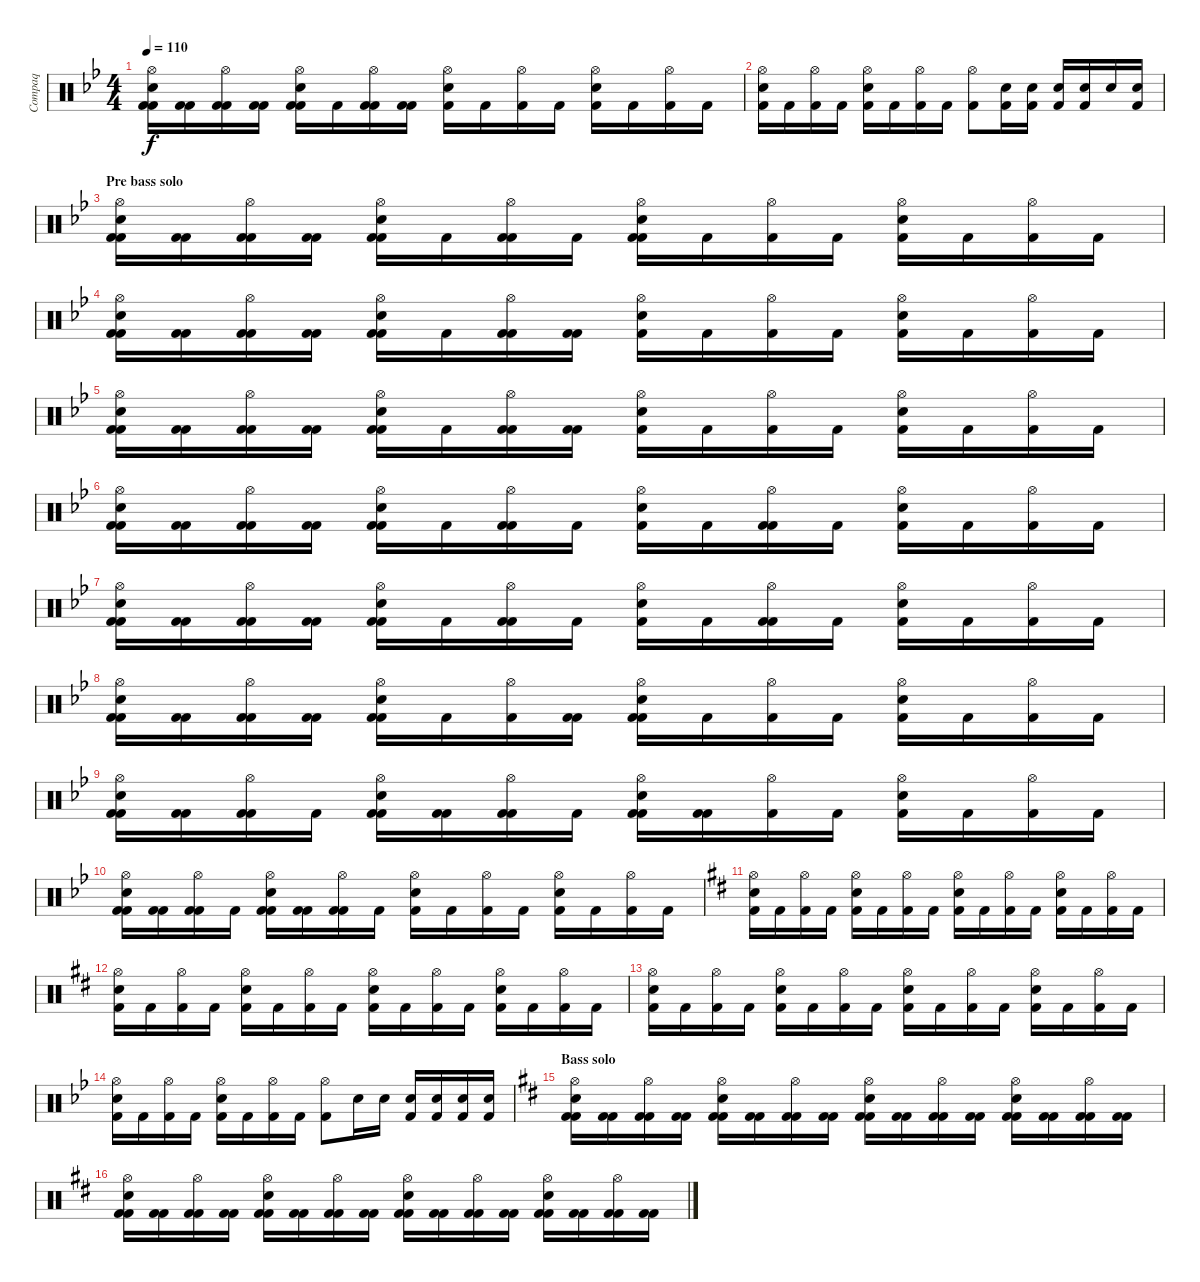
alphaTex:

\track ("Compaq" "Compaq") {instrument percussion}
\staff {score}
\articulation defaults
\ts (4 4)
\tempo 110
\clef neutral
\ks bb
("Electric Snare (hit)" "Kick (hit) 2" "Hi-Hat (open)" "Kick (hit) 2").16{dy f} ("Kick (hit) 2" "Kick (hit) 2").16 ("Kick (hit) 2" "Hi-Hat (open)" "Kick (hit) 2").16 ("Kick (hit) 2" "Kick (hit) 2").16 ("Electric Snare (hit)" "Kick (hit) 2" "Hi-Hat (open)" "Kick (hit) 2").16 "Kick (hit) 2".16 ("Kick (hit) 2" "Hi-Hat (open)" "Kick (hit) 2").16 ("Kick (hit) 2" "Kick (hit) 2").16 ("Electric Snare (hit)" "Kick (hit) 2" "Hi-Hat (open)").16 "Kick (hit) 2".16 ("Kick (hit) 2" "Hi-Hat (open)").16 "Kick (hit) 2".16 ("Electric Snare (hit)" "Kick (hit) 2" "Hi-Hat (open)").16 "Kick (hit) 2".16 ("Kick (hit) 2" "Hi-Hat (open)").16 "Kick (hit) 2".16 |
("Electric Snare (hit)" "Kick (hit) 2" "Hi-Hat (open)").16 "Kick (hit) 2".16 ("Kick (hit) 2" "Hi-Hat (open)").16 "Kick (hit) 2".16 ("Electric Snare (hit)" "Kick (hit) 2" "Hi-Hat (open)").16 "Kick (hit) 2".16 ("Kick (hit) 2" "Hi-Hat (open)").16 "Kick (hit) 2".16 ("Hi-Hat (open)" "Kick (hit) 2").8 ("Electric Snare (hit)" "Kick (hit) 2").16 ("Electric Snare (hit)" "Kick (hit) 2").16 ("Electric Snare (hit)" "Kick (hit) 2").16 ("Electric Snare (hit)" "Kick (hit) 2").16 "Electric Snare (hit)".16 ("Electric Snare (hit)" "Kick (hit) 2").16 |
\section ("" "Pre bass solo")
("Electric Snare (hit)" "Kick (hit) 2" "Hi-Hat (open)" "Kick (hit) 2").16 ("Kick (hit) 2" "Kick (hit) 2").16 ("Kick (hit) 2" "Hi-Hat (open)" "Kick (hit) 2").16 ("Kick (hit) 2" "Kick (hit) 2").16 ("Electric Snare (hit)" "Kick (hit) 2" "Hi-Hat (open)" "Kick (hit) 2").16 "Kick (hit) 2".16 ("Kick (hit) 2" "Hi-Hat (open)" "Kick (hit) 2").16 "Kick (hit) 2".16 ("Electric Snare (hit)" "Kick (hit) 2" "Hi-Hat (open)" "Kick (hit) 2").16 "Kick (hit) 2".16 ("Kick (hit) 2" "Hi-Hat (open)").16 "Kick (hit) 2".16 ("Electric Snare (hit)" "Kick (hit) 2" "Hi-Hat (open)").16 "Kick (hit) 2".16 ("Kick (hit) 2" "Hi-Hat (open)").16 "Kick (hit) 2".16 |
("Electric Snare (hit)" "Kick (hit) 2" "Hi-Hat (open)" "Kick (hit) 2").16 ("Kick (hit) 2" "Kick (hit) 2").16 ("Kick (hit) 2" "Hi-Hat (open)" "Kick (hit) 2").16 ("Kick (hit) 2" "Kick (hit) 2").16 ("Electric Snare (hit)" "Kick (hit) 2" "Hi-Hat (open)" "Kick (hit) 2").16 "Kick (hit) 2".16 ("Kick (hit) 2" "Hi-Hat (open)" "Kick (hit) 2").16 ("Kick (hit) 2" "Kick (hit) 2").16 ("Electric Snare (hit)" "Kick (hit) 2" "Hi-Hat (open)").16 "Kick (hit) 2".16 ("Kick (hit) 2" "Hi-Hat (open)").16 "Kick (hit) 2".16 ("Electric Snare (hit)" "Kick (hit) 2" "Hi-Hat (open)").16 "Kick (hit) 2".16 ("Kick (hit) 2" "Hi-Hat (open)").16 "Kick (hit) 2".16 |
("Electric Snare (hit)" "Kick (hit) 2" "Hi-Hat (open)" "Kick (hit) 2").16 ("Kick (hit) 2" "Kick (hit) 2").16 ("Kick (hit) 2" "Hi-Hat (open)" "Kick (hit) 2").16 ("Kick (hit) 2" "Kick (hit) 2").16 ("Electric Snare (hit)" "Kick (hit) 2" "Hi-Hat (open)" "Kick (hit) 2").16 "Kick (hit) 2".16 ("Kick (hit) 2" "Hi-Hat (open)" "Kick (hit) 2").16 ("Kick (hit) 2" "Kick (hit) 2").16 ("Electric Snare (hit)" "Kick (hit) 2" "Hi-Hat (open)").16 "Kick (hit) 2".16 ("Kick (hit) 2" "Hi-Hat (open)").16 "Kick (hit) 2".16 ("Electric Snare (hit)" "Kick (hit) 2" "Hi-Hat (open)").16 "Kick (hit) 2".16 ("Kick (hit) 2" "Hi-Hat (open)").16 "Kick (hit) 2".16 |
("Electric Snare (hit)" "Kick (hit) 2" "Hi-Hat (open)" "Kick (hit) 2").16 ("Kick (hit) 2" "Kick (hit) 2").16 ("Kick (hit) 2" "Hi-Hat (open)" "Kick (hit) 2").16 ("Kick (hit) 2" "Kick (hit) 2").16 ("Electric Snare (hit)" "Kick (hit) 2" "Hi-Hat (open)" "Kick (hit) 2").16 "Kick (hit) 2".16 ("Kick (hit) 2" "Hi-Hat (open)" "Kick (hit) 2").16 "Kick (hit) 2".16 ("Electric Snare (hit)" "Kick (hit) 2" "Hi-Hat (open)").16 "Kick (hit) 2".16 ("Kick (hit) 2" "Hi-Hat (open)" "Kick (hit) 2").16 "Kick (hit) 2".16 ("Electric Snare (hit)" "Kick (hit) 2" "Hi-Hat (open)").16 "Kick (hit) 2".16 ("Kick (hit) 2" "Hi-Hat (open)").16 "Kick (hit) 2".16 |
("Electric Snare (hit)" "Kick (hit) 2" "Hi-Hat (open)" "Kick (hit) 2").16 ("Kick (hit) 2" "Kick (hit) 2").16 ("Kick (hit) 2" "Hi-Hat (open)" "Kick (hit) 2").16 ("Kick (hit) 2" "Kick (hit) 2").16 ("Electric Snare (hit)" "Kick (hit) 2" "Hi-Hat (open)" "Kick (hit) 2").16 "Kick (hit) 2".16 ("Kick (hit) 2" "Hi-Hat (open)" "Kick (hit) 2").16 "Kick (hit) 2".16 ("Electric Snare (hit)" "Kick (hit) 2" "Hi-Hat (open)").16 "Kick (hit) 2".16 ("Kick (hit) 2" "Hi-Hat (open)" "Kick (hit) 2").16 "Kick (hit) 2".16 ("Electric Snare (hit)" "Kick (hit) 2" "Hi-Hat (open)").16 "Kick (hit) 2".16 ("Kick (hit) 2" "Hi-Hat (open)").16 "Kick (hit) 2".16 |
("Electric Snare (hit)" "Kick (hit) 2" "Hi-Hat (open)" "Kick (hit) 2").16 ("Kick (hit) 2" "Kick (hit) 2").16 ("Kick (hit) 2" "Hi-Hat (open)" "Kick (hit) 2").16 ("Kick (hit) 2" "Kick (hit) 2").16 ("Electric Snare (hit)" "Kick (hit) 2" "Hi-Hat (open)" "Kick (hit) 2").16 "Kick (hit) 2".16 ("Kick (hit) 2" "Hi-Hat (open)").16 ("Kick (hit) 2" "Kick (hit) 2").16 ("Electric Snare (hit)" "Kick (hit) 2" "Hi-Hat (open)" "Kick (hit) 2").16 "Kick (hit) 2".16 ("Kick (hit) 2" "Hi-Hat (open)").16 "Kick (hit) 2".16 ("Electric Snare (hit)" "Kick (hit) 2" "Hi-Hat (open)").16 "Kick (hit) 2".16 ("Kick (hit) 2" "Hi-Hat (open)").16 "Kick (hit) 2".16 |
("Electric Snare (hit)" "Kick (hit) 2" "Hi-Hat (open)" "Kick (hit) 2").16 ("Kick (hit) 2" "Kick (hit) 2").16 ("Kick (hit) 2" "Hi-Hat (open)" "Kick (hit) 2").16 "Kick (hit) 2".16 ("Electric Snare (hit)" "Kick (hit) 2" "Hi-Hat (open)" "Kick (hit) 2").16 ("Kick (hit) 2" "Kick (hit) 2").16 ("Kick (hit) 2" "Hi-Hat (open)" "Kick (hit) 2").16 "Kick (hit) 2".16 ("Electric Snare (hit)" "Kick (hit) 2" "Hi-Hat (open)" "Kick (hit) 2").16 ("Kick (hit) 2" "Kick (hit) 2").16 ("Kick (hit) 2" "Hi-Hat (open)").16 "Kick (hit) 2".16 ("Electric Snare (hit)" "Kick (hit) 2" "Hi-Hat (open)").16 "Kick (hit) 2".16 ("Kick (hit) 2" "Hi-Hat (open)").16 "Kick (hit) 2".16 |
("Electric Snare (hit)" "Kick (hit) 2" "Hi-Hat (open)" "Kick (hit) 2").16 ("Kick (hit) 2" "Kick (hit) 2").16 ("Kick (hit) 2" "Hi-Hat (open)" "Kick (hit) 2").16 "Kick (hit) 2".16 ("Electric Snare (hit)" "Kick (hit) 2" "Hi-Hat (open)" "Kick (hit) 2").16 ("Kick (hit) 2" "Kick (hit) 2").16 ("Kick (hit) 2" "Hi-Hat (open)" "Kick (hit) 2").16 "Kick (hit) 2".16 ("Electric Snare (hit)" "Kick (hit) 2" "Hi-Hat (open)").16 "Kick (hit) 2".16 ("Kick (hit) 2" "Hi-Hat (open)").16 "Kick (hit) 2".16 ("Electric Snare (hit)" "Kick (hit) 2" "Hi-Hat (open)").16 "Kick (hit) 2".16 ("Kick (hit) 2" "Hi-Hat (open)").16 "Kick (hit) 2".16 |
\ks bminor
("Electric Snare (hit)" "Kick (hit) 2" "Hi-Hat (open)").16 "Kick (hit) 2".16 ("Kick (hit) 2" "Hi-Hat (open)").16 "Kick (hit) 2".16 ("Electric Snare (hit)" "Kick (hit) 2" "Hi-Hat (open)").16 "Kick (hit) 2".16 ("Kick (hit) 2" "Hi-Hat (open)").16 "Kick (hit) 2".16 ("Electric Snare (hit)" "Kick (hit) 2" "Hi-Hat (open)").16 "Kick (hit) 2".16 ("Kick (hit) 2" "Hi-Hat (open)").16 "Kick (hit) 2".16 ("Electric Snare (hit)" "Kick (hit) 2" "Hi-Hat (open)").16 "Kick (hit) 2".16 ("Kick (hit) 2" "Hi-Hat (open)").16 "Kick (hit) 2".16 |
("Electric Snare (hit)" "Kick (hit) 2" "Hi-Hat (open)").16 "Kick (hit) 2".16 ("Kick (hit) 2" "Hi-Hat (open)").16 "Kick (hit) 2".16 ("Electric Snare (hit)" "Kick (hit) 2" "Hi-Hat (open)").16 "Kick (hit) 2".16 ("Kick (hit) 2" "Hi-Hat (open)").16 "Kick (hit) 2".16 ("Electric Snare (hit)" "Kick (hit) 2" "Hi-Hat (open)").16 "Kick (hit) 2".16 ("Kick (hit) 2" "Hi-Hat (open)").16 "Kick (hit) 2".16 ("Electric Snare (hit)" "Kick (hit) 2" "Hi-Hat (open)").16 "Kick (hit) 2".16 ("Kick (hit) 2" "Hi-Hat (open)").16 "Kick (hit) 2".16 |
("Electric Snare (hit)" "Kick (hit) 2" "Hi-Hat (open)").16 "Kick (hit) 2".16 ("Kick (hit) 2" "Hi-Hat (open)").16 "Kick (hit) 2".16 ("Electric Snare (hit)" "Kick (hit) 2" "Hi-Hat (open)").16 "Kick (hit) 2".16 ("Kick (hit) 2" "Hi-Hat (open)").16 "Kick (hit) 2".16 ("Electric Snare (hit)" "Kick (hit) 2" "Hi-Hat (open)").16 "Kick (hit) 2".16 ("Kick (hit) 2" "Hi-Hat (open)").16 "Kick (hit) 2".16 ("Electric Snare (hit)" "Kick (hit) 2" "Hi-Hat (open)").16 "Kick (hit) 2".16 ("Kick (hit) 2" "Hi-Hat (open)").16 "Kick (hit) 2".16 |
\ks bb
("Electric Snare (hit)" "Kick (hit) 2" "Hi-Hat (open)").16 "Kick (hit) 2".16 ("Kick (hit) 2" "Hi-Hat (open)").16 "Kick (hit) 2".16 ("Electric Snare (hit)" "Kick (hit) 2" "Hi-Hat (open)").16 "Kick (hit) 2".16 ("Kick (hit) 2" "Hi-Hat (open)").16 "Kick (hit) 2".16 ("Hi-Hat (open)" "Kick (hit) 2").8 "Electric Snare (hit)".16 "Electric Snare (hit)".16 ("Electric Snare (hit)" "Kick (hit) 2").16 ("Electric Snare (hit)" "Kick (hit) 2").16 ("Electric Snare (hit)" "Kick (hit) 2").16 ("Electric Snare (hit)" "Kick (hit) 2").16 |
\section ("" "Bass solo")
\ks bminor
("Electric Snare (hit)" "Kick (hit) 2" "Hi-Hat (open)" "Kick (hit) 2").16 ("Kick (hit) 2" "Kick (hit) 2").16 ("Kick (hit) 2" "Hi-Hat (open)" "Kick (hit) 2").16 ("Kick (hit) 2" "Kick (hit) 2").16 ("Electric Snare (hit)" "Kick (hit) 2" "Hi-Hat (open)" "Kick (hit) 2").16 ("Kick (hit) 2" "Kick (hit) 2").16 ("Kick (hit) 2" "Hi-Hat (open)" "Kick (hit) 2").16 ("Kick (hit) 2" "Kick (hit) 2").16 ("Electric Snare (hit)" "Kick (hit) 2" "Hi-Hat (open)" "Kick (hit) 2").16 ("Kick (hit) 2" "Kick (hit) 2").16 ("Kick (hit) 2" "Hi-Hat (open)" "Kick (hit) 2").16 ("Kick (hit) 2" "Kick (hit) 2").16 ("Electric Snare (hit)" "Kick (hit) 2" "Hi-Hat (open)" "Kick (hit) 2").16 ("Kick (hit) 2" "Kick (hit) 2").16 ("Kick (hit) 2" "Hi-Hat (open)" "Kick (hit) 2").16 ("Kick (hit) 2" "Kick (hit) 2").16 |
("Electric Snare (hit)" "Kick (hit) 2" "Hi-Hat (open)" "Kick (hit) 2").16 ("Kick (hit) 2" "Kick (hit) 2").16 ("Kick (hit) 2" "Hi-Hat (open)" "Kick (hit) 2").16 ("Kick (hit) 2" "Kick (hit) 2").16 ("Electric Snare (hit)" "Kick (hit) 2" "Hi-Hat (open)" "Kick (hit) 2").16 ("Kick (hit) 2" "Kick (hit) 2").16 ("Kick (hit) 2" "Hi-Hat (open)" "Kick (hit) 2").16 ("Kick (hit) 2" "Kick (hit) 2").16 ("Electric Snare (hit)" "Kick (hit) 2" "Hi-Hat (open)" "Kick (hit) 2").16 ("Kick (hit) 2" "Kick (hit) 2").16 ("Kick (hit) 2" "Hi-Hat (open)" "Kick (hit) 2").16 ("Kick (hit) 2" "Kick (hit) 2").16 ("Electric Snare (hit)" "Kick (hit) 2" "Hi-Hat (open)" "Kick (hit) 2").16 ("Kick (hit) 2" "Kick (hit) 2").16 ("Kick (hit) 2" "Hi-Hat (open)" "Kick (hit) 2").16 ("Kick (hit) 2" "Kick (hit) 2").16
